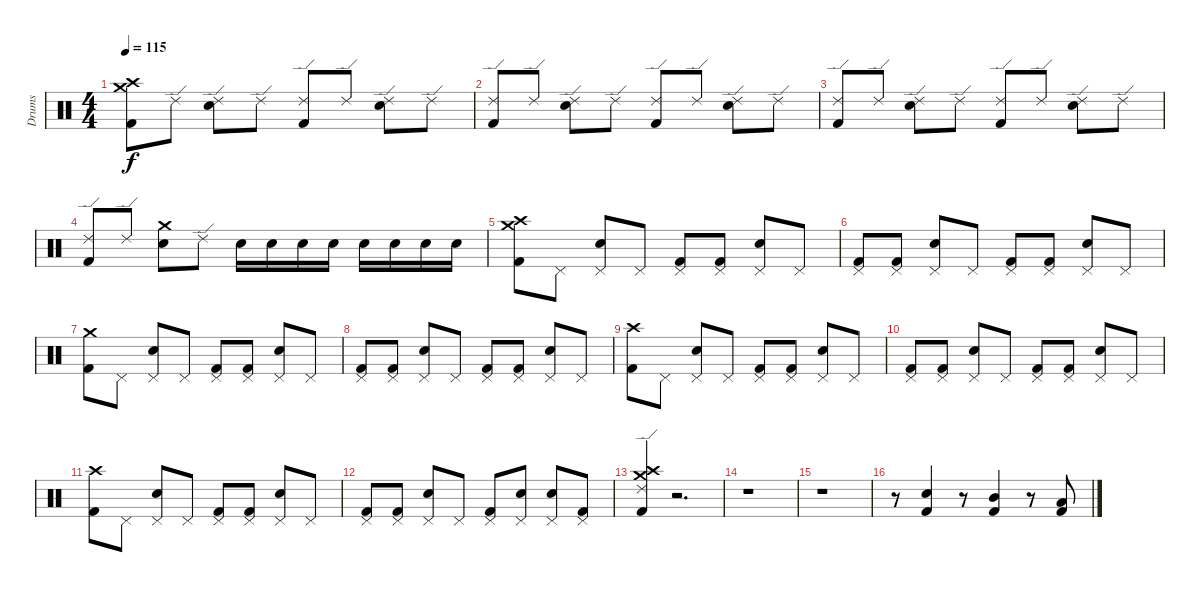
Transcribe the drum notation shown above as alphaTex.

\track ("Drums" "Drums") {instrument percussion}
\staff {score}
\articulation defaults
\ts (4 4)
\tempo 115
\clef neutral
\ks c
("Kick (hit) 2" "Crash high (hit)" "Crash medium (hit)").8{dy f} "Ride (edge) 2".8 ("Ride (edge) 2" "Snare (hit) 2").8 "Ride (edge) 2".8 ("Ride (edge) 2" "Kick (hit) 2").8 "Ride (edge) 2".8 ("Ride (edge) 2" "Snare (hit) 2").8 "Ride (edge) 2".8 |
("Ride (edge) 2" "Kick (hit) 2").8 "Ride (edge) 2".8 ("Ride (edge) 2" "Snare (hit) 2").8 "Ride (edge) 2".8 ("Ride (edge) 2" "Kick (hit) 2").8 "Ride (edge) 2".8 ("Ride (edge) 2" "Snare (hit) 2").8 "Ride (edge) 2".8 |
("Ride (edge) 2" "Kick (hit) 2").8 "Ride (edge) 2".8 ("Ride (edge) 2" "Snare (hit) 2").8 "Ride (edge) 2".8 ("Ride (edge) 2" "Kick (hit) 2").8 "Ride (edge) 2".8 ("Ride (edge) 2" "Snare (hit) 2").8 "Ride (edge) 2".8 |
("Ride (edge) 2" "Kick (hit) 2").8 "Ride (edge) 2".8 ("Snare (hit) 2" "Crash medium (hit)").8 "Ride (edge) 2".8 "Snare (hit) 2".16 "Snare (hit) 2".16 "Snare (hit) 2".16 "Snare (hit) 2".16 "Snare (hit) 2".16 "Snare (hit) 2".16 "Snare (hit) 2".16 "Snare (hit) 2".16 |
("Kick (hit) 2" "Crash high (hit)" "Crash medium (hit)").8 "Pedal Hi-Hat (hit)".8 ("Pedal Hi-Hat (hit)" "Snare (hit) 2").8 "Pedal Hi-Hat (hit)".8 ("Pedal Hi-Hat (hit)" "Kick (hit) 2").8 ("Pedal Hi-Hat (hit)" "Kick (hit) 2").8 ("Pedal Hi-Hat (hit)" "Snare (hit) 2").8 "Pedal Hi-Hat (hit)".8 |
("Pedal Hi-Hat (hit)" "Kick (hit) 2").8 ("Pedal Hi-Hat (hit)" "Kick (hit) 2").8 ("Pedal Hi-Hat (hit)" "Snare (hit) 2").8 "Pedal Hi-Hat (hit)".8 ("Pedal Hi-Hat (hit)" "Kick (hit) 2").8 ("Pedal Hi-Hat (hit)" "Kick (hit) 2").8 ("Pedal Hi-Hat (hit)" "Snare (hit) 2").8 "Pedal Hi-Hat (hit)".8 |
("Kick (hit) 2" "Crash medium (hit)").8 "Pedal Hi-Hat (hit)".8 ("Pedal Hi-Hat (hit)" "Snare (hit) 2").8 "Pedal Hi-Hat (hit)".8 ("Pedal Hi-Hat (hit)" "Kick (hit) 2").8 ("Pedal Hi-Hat (hit)" "Kick (hit) 2").8 ("Pedal Hi-Hat (hit)" "Snare (hit) 2").8 "Pedal Hi-Hat (hit)".8 |
("Pedal Hi-Hat (hit)" "Kick (hit) 2").8 ("Pedal Hi-Hat (hit)" "Kick (hit) 2").8 ("Pedal Hi-Hat (hit)" "Snare (hit) 2").8 "Pedal Hi-Hat (hit)".8 ("Pedal Hi-Hat (hit)" "Kick (hit) 2").8 ("Pedal Hi-Hat (hit)" "Kick (hit) 2").8 ("Pedal Hi-Hat (hit)" "Snare (hit) 2").8 "Pedal Hi-Hat (hit)".8 |
("Kick (hit) 2" "Crash high (hit)").8 "Pedal Hi-Hat (hit)".8 ("Pedal Hi-Hat (hit)" "Snare (hit) 2").8 "Pedal Hi-Hat (hit)".8 ("Pedal Hi-Hat (hit)" "Kick (hit) 2").8 ("Pedal Hi-Hat (hit)" "Kick (hit) 2").8 ("Pedal Hi-Hat (hit)" "Snare (hit) 2").8 "Pedal Hi-Hat (hit)".8 |
("Pedal Hi-Hat (hit)" "Kick (hit) 2").8 ("Pedal Hi-Hat (hit)" "Kick (hit) 2").8 ("Pedal Hi-Hat (hit)" "Snare (hit) 2").8 "Pedal Hi-Hat (hit)".8 ("Pedal Hi-Hat (hit)" "Kick (hit) 2").8 ("Pedal Hi-Hat (hit)" "Kick (hit) 2").8 ("Pedal Hi-Hat (hit)" "Snare (hit) 2").8 "Pedal Hi-Hat (hit)".8 |
("Crash high (hit)" "Kick (hit) 2").8 "Pedal Hi-Hat (hit)".8 ("Pedal Hi-Hat (hit)" "Snare (hit) 2").8 "Pedal Hi-Hat (hit)".8 ("Pedal Hi-Hat (hit)" "Kick (hit) 2").8 ("Pedal Hi-Hat (hit)" "Kick (hit) 2").8 ("Pedal Hi-Hat (hit)" "Snare (hit) 2").8 "Pedal Hi-Hat (hit)".8 |
("Pedal Hi-Hat (hit)" "Kick (hit) 2").8 ("Pedal Hi-Hat (hit)" "Kick (hit) 2").8 ("Pedal Hi-Hat (hit)" "Snare (hit) 2").8 "Pedal Hi-Hat (hit)".8 ("Pedal Hi-Hat (hit)" "Kick (hit) 2").8 ("Pedal Hi-Hat (hit)" "Snare (hit) 2").8 ("Pedal Hi-Hat (hit)" "Snare (hit) 2").8 ("Pedal Hi-Hat (hit)" "Kick (hit) 2").8 |
("Crash high (hit)" "Ride (edge) 2" "Crash medium (hit)" "Kick (hit) 2").4 r.2{d} |
r.1 |
r.1 |
r.8 ("Kick (hit) 2" "Snare (hit) 2").4 r.8 ("Kick (hit) 2" "Mid Tom (hit)").4 r.8 ("Kick (hit) 2" "Low Tom (hit)").8
